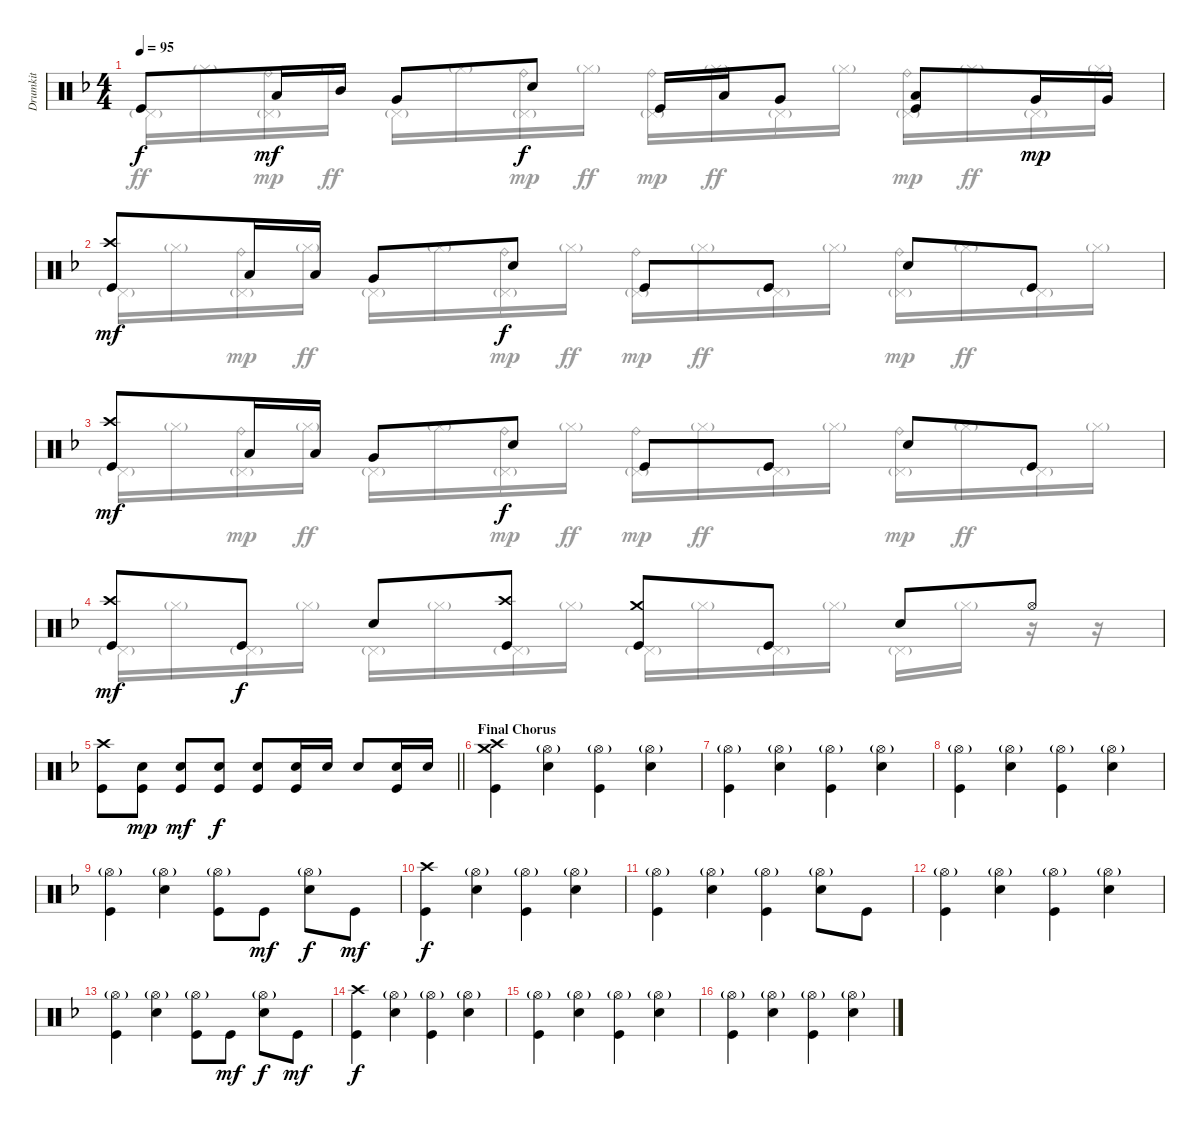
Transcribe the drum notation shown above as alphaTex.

\track ("Drumkit" "Drumkit") {instrument percussion}
\staff {score}
\articulation defaults
\voice
\ts (4 4)
\tempo 95
\clef neutral
\ks f "Kick (hit)".8{dy f} "Low Tom (hit)".16{dy mf} "Mid Tom (hit)".16 "Very Low Tom (hit)".8 "Snare (hit) 2".8{dy f} "Kick (hit)".16 "Low Tom (hit)".16 "Very Low Tom (hit)".8
("Low Tom (hit)" "Kick (hit)").8 "Very Low Tom (hit)".16{dy mp} "Very Low Tom (hit)".16 |
("Crash high (hit)" "Kick (hit)").8{dy mf} "Low Tom (hit)".16 "Low Tom (hit)".16 "Very Low Tom (hit)".8 "Snare (hit) 2".8{dy f} "Kick (hit)".8 "Kick (hit)".8 "Snare (hit) 2".8 "Kick (hit)".8 |
("Crash high (hit)" "Kick (hit)").8{dy mf} "Low Tom (hit)".16 "Low Tom (hit)".16 "Very Low Tom (hit)".8 "Snare (hit) 2".8{dy f} "Kick (hit)".8 "Kick (hit)".8 "Snare (hit) 2".8 "Kick (hit)".8 |
("Crash high (hit)" "Kick (hit)").8{dy mf} "Kick (hit)".8{dy f} "Snare (hit) 2".8 ("Crash high (hit)" "Kick (hit)").8 ("Crash medium (hit)" "Kick (hit)").8 "Kick (hit)".8 "Snare (hit) 2".8 "Hi-Hat (open)".8 |
\barLineRight lightlight
("Crash high (hit)" "Kick (hit)").8 ("Snare (hit) 2" "Kick (hit)").8{dy mp} ("Snare (hit) 2" "Kick (hit)").8{dy mf} ("Snare (hit) 2" "Kick (hit)").8{dy f} ("Snare (hit) 2" "Kick (hit)").8 ("Snare (hit) 2" "Kick (hit)").16 "Snare (hit) 2".16 "Snare (hit) 2".8 ("Snare (hit) 2" "Kick (hit)").16 "Snare (hit) 2".16 |
\section ("" "Final Chorus")
("Crash high (hit)" "Crash medium (hit)" "Kick (hit)").4 ("Hi-Hat (open)"{g} "Snare (hit) 2").4 ("Hi-Hat (open)"{g} "Kick (hit)").4 ("Hi-Hat (open)"{g} "Snare (hit) 2").4 |
("Hi-Hat (open)"{g} "Kick (hit)").4 ("Hi-Hat (open)"{g} "Snare (hit) 2").4 ("Hi-Hat (open)"{g} "Kick (hit)").4 ("Hi-Hat (open)"{g} "Snare (hit) 2").4 |
("Hi-Hat (open)"{g} "Kick (hit)").4 ("Hi-Hat (open)"{g} "Snare (hit) 2").4 ("Hi-Hat (open)"{g} "Kick (hit)").4 ("Hi-Hat (open)"{g} "Snare (hit) 2").4 |
("Hi-Hat (open)"{g} "Kick (hit)").4 ("Hi-Hat (open)"{g} "Snare (hit) 2").4 ("Hi-Hat (open)"{g} "Kick (hit)").8 "Kick (hit)".8{dy mf} ("Hi-Hat (open)"{g} "Snare (hit) 2").8{dy f} "Kick (hit)".8{dy mf} |
("Crash high (hit)" "Kick (hit)").4{dy f} ("Hi-Hat (open)"{g} "Snare (hit) 2").4 ("Hi-Hat (open)"{g} "Kick (hit)").4 ("Hi-Hat (open)"{g} "Snare (hit) 2").4 |
("Hi-Hat (open)"{g} "Kick (hit)").4 ("Hi-Hat (open)"{g} "Snare (hit) 2").4 ("Hi-Hat (open)"{g} "Kick (hit)").4 ("Hi-Hat (open)"{g} "Snare (hit) 2").8 "Kick (hit)".8 |
("Hi-Hat (open)"{g} "Kick (hit)").4 ("Hi-Hat (open)"{g} "Snare (hit) 2").4 ("Hi-Hat (open)"{g} "Kick (hit)").4 ("Hi-Hat (open)"{g} "Snare (hit) 2").4 |
("Hi-Hat (open)"{g} "Kick (hit)").4 ("Hi-Hat (open)"{g} "Snare (hit) 2").4 ("Hi-Hat (open)"{g} "Kick (hit)").8 "Kick (hit)".8{dy mf} ("Hi-Hat (open)"{g} "Snare (hit) 2").8{dy f} "Kick (hit)".8{dy mf} |
("Crash high (hit)" "Kick (hit)").4{dy f} ("Hi-Hat (open)"{g} "Snare (hit) 2").4 ("Hi-Hat (open)"{g} "Kick (hit)").4 ("Hi-Hat (open)"{g} "Snare (hit) 2").4 |
("Hi-Hat (open)"{g} "Kick (hit)").4 ("Hi-Hat (open)"{g} "Snare (hit) 2").4 ("Hi-Hat (open)"{g} "Kick (hit)").4 ("Hi-Hat (open)"{g} "Snare (hit) 2").4 |
("Hi-Hat (open)"{g} "Kick (hit)").4 ("Hi-Hat (open)"{g} "Snare (hit) 2").4 ("Hi-Hat (open)"{g} "Kick (hit)").4 ("Hi-Hat (open)"{g} "Snare (hit) 2").4
\voice
\clef neutral
\ottava regular
\simile none
\ks f "Pedal Hi-Hat (hit)"{g}.16{dy ff} "Hi-Hat (closed)"{g}.16
("Pedal Hi-Hat (hit)"{g} "Ride (bell)").16{dy mp} "Hi-Hat (closed)"{g}.16{dy ff} "Pedal Hi-Hat (hit)"{g}.16 "Hi-Hat (closed)"{g}.16 ("Pedal Hi-Hat (hit)"{g} "Ride (bell)").16{dy mp} "Hi-Hat (closed)"{g}.16{dy ff} ("Pedal Hi-Hat (hit)"{g} "Ride (bell)").16{dy mp} "Hi-Hat (closed)"{g}.16{dy ff} "Pedal Hi-Hat (hit)"{g}.16 "Hi-Hat (closed)"{g}.16 ("Pedal Hi-Hat (hit)"{g} "Ride (bell)").16{dy mp} "Hi-Hat (closed)"{g}.16{dy ff} "Pedal Hi-Hat (hit)"{g}.16 "Hi-Hat (closed)"{g}.16 |
"Pedal Hi-Hat (hit)"{g}.16 "Hi-Hat (closed)"{g}.16 ("Pedal Hi-Hat (hit)"{g} "Ride (bell)").16{dy mp} "Hi-Hat (closed)"{g}.16{dy ff} "Pedal Hi-Hat (hit)"{g}.16 "Hi-Hat (closed)"{g}.16 ("Pedal Hi-Hat (hit)"{g} "Ride (bell)").16{dy mp} "Hi-Hat (closed)"{g}.16{dy ff} ("Pedal Hi-Hat (hit)"{g} "Ride (bell)").16{dy mp} "Hi-Hat (closed)"{g}.16{dy ff} "Pedal Hi-Hat (hit)"{g}.16 "Hi-Hat (closed)"{g}.16 ("Pedal Hi-Hat (hit)"{g} "Ride (bell)").16{dy mp} "Hi-Hat (closed)"{g}.16{dy ff} "Pedal Hi-Hat (hit)"{g}.16 "Hi-Hat (closed)"{g}.16 |
"Pedal Hi-Hat (hit)"{g}.16 "Hi-Hat (closed)"{g}.16 ("Pedal Hi-Hat (hit)"{g} "Ride (bell)").16{dy mp} "Hi-Hat (closed)"{g}.16{dy ff} "Pedal Hi-Hat (hit)"{g}.16 "Hi-Hat (closed)"{g}.16 ("Pedal Hi-Hat (hit)"{g} "Ride (bell)").16{dy mp} "Hi-Hat (closed)"{g}.16{dy ff} ("Pedal Hi-Hat (hit)"{g} "Ride (bell)").16{dy mp} "Hi-Hat (closed)"{g}.16{dy ff} "Pedal Hi-Hat (hit)"{g}.16 "Hi-Hat (closed)"{g}.16 ("Pedal Hi-Hat (hit)"{g} "Ride (bell)").16{dy mp} "Hi-Hat (closed)"{g}.16{dy ff} "Pedal Hi-Hat (hit)"{g}.16 "Hi-Hat (closed)"{g}.16 |
"Pedal Hi-Hat (hit)"{g}.16 "Hi-Hat (closed)"{g}.16 "Pedal Hi-Hat (hit)"{g}.16 "Hi-Hat (closed)"{g}.16 "Pedal Hi-Hat (hit)"{g}.16 "Hi-Hat (closed)"{g}.16 "Pedal Hi-Hat (hit)"{g}.16 "Hi-Hat (closed)"{g}.16 "Pedal Hi-Hat (hit)"{g}.16 "Hi-Hat (closed)"{g}.16 "Pedal Hi-Hat (hit)"{g}.16 "Hi-Hat (closed)"{g}.16 "Pedal Hi-Hat (hit)"{g}.16 "Hi-Hat (closed)"{g}.16 r.16 r.16 |
\barLineRight lightlight
|
|
|
|
|
|
|
|
|
|
|
